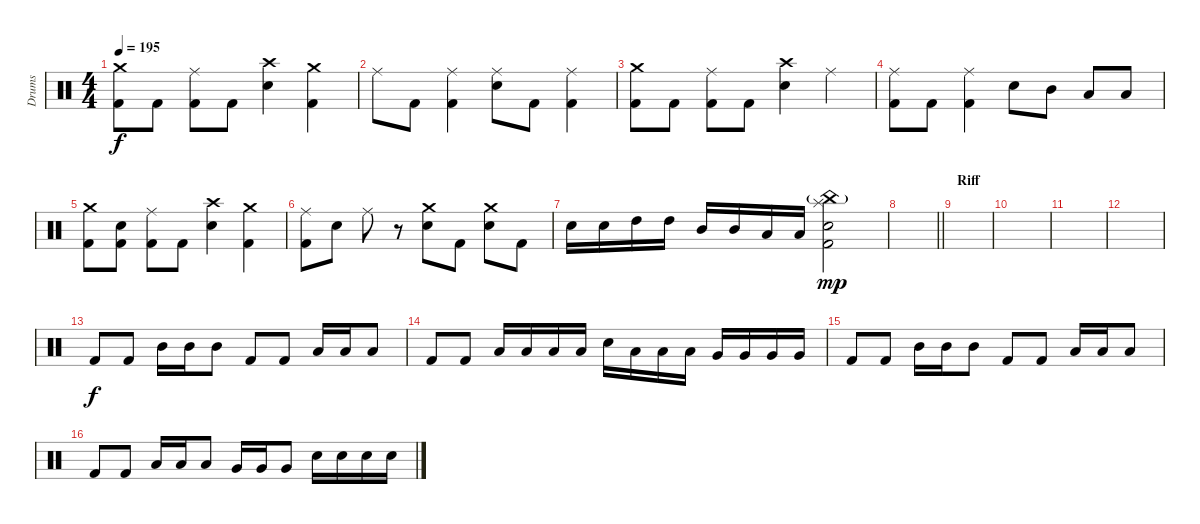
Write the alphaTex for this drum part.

\track ("Drums" "Drums") {instrument percussion}
\staff {score}
\articulation defaults
\ts (4 4)
\tempo 195
\clef neutral
\ks c
("Crash medium (hit)" "Kick (hit) 2").8{dy f} "Kick (hit) 2".8 ("Ride (middle)" "Kick (hit) 2").8 "Kick (hit) 2".8 ("Crash high (hit)" "Electric Snare (hit)").4 ("Crash medium (hit)" "Kick (hit) 2").4 |
"Ride (middle)".8 "Kick (hit) 2".8 ("Ride (middle)" "Kick (hit) 2").4 ("Ride (middle)" "Electric Snare (hit)").8 "Kick (hit) 2".8 ("Ride (middle)" "Kick (hit) 2").4 |
("Crash medium (hit)" "Kick (hit) 2").8 "Kick (hit) 2".8 ("Ride (middle)" "Kick (hit) 2").8 "Kick (hit) 2".8 ("Crash high (hit)" "Electric Snare (hit)").4 "Ride (middle)".4 |
("Ride (middle)" "Kick (hit) 2").8 "Kick (hit) 2".8 ("Ride (middle)" "Kick (hit) 2").4 "Electric Snare (hit)".8 "Mid Tom (hit)".8 "Low Tom (hit)".8 "Low Tom (hit)".8 |
("Crash medium (hit)" "Kick (hit) 2").8 ("Electric Snare (hit)" "Kick (hit) 2").8 ("Ride (middle)" "Kick (hit) 2").8 "Kick (hit) 2".8 ("Crash high (hit)" "Electric Snare (hit)").4 ("Crash medium (hit)" "Kick (hit) 2").4 |
("Ride (middle)" "Kick (hit) 2").8 "Electric Snare (hit)".8 "Ride (middle)".8 r.8 ("Crash medium (hit)" "Electric Snare (hit)").8 "Kick (hit) 2".8 ("Crash medium (hit)" "Electric Snare (hit)").8 "Kick (hit) 2".8 |
"Electric Snare (hit)".16 "Electric Snare (hit)".16 "High Tom (hit)".16 "High Tom (hit)".16 "Mid Tom (hit)".16 "Mid Tom (hit)".16 "Low Tom (hit)".16 "Low Tom (hit)".16 ("Splash (hit)" "China (hit)"{g} "Electric Snare (hit)" "Kick (hit) 2").2{dy mp} |
\barLineRight lightlight
|
\section ("" "Riff")
|
|
|
|
"Kick (hit) 2".8{dy f} "Kick (hit) 2".8 "Mid Tom (hit)".16 "Mid Tom (hit)".16 "Mid Tom (hit)".8 "Kick (hit) 2".8 "Kick (hit) 2".8 "Low Tom (hit)".16 "Low Tom (hit)".16 "Low Tom (hit)".8 |
"Kick (hit) 2".8 "Kick (hit) 2".8 "Low Tom (hit)".16 "Low Tom (hit)".16 "Low Tom (hit)".16 "Low Tom (hit)".16 "Electric Snare (hit)".16 "Low Tom (hit)".16 "Low Tom (hit)".16 "Low Tom (hit)".16 "Very Low Tom (hit)".16 "Very Low Tom (hit)".16 "Very Low Tom (hit)".16 "Very Low Tom (hit)".16 |
"Kick (hit) 2".8 "Kick (hit) 2".8 "Mid Tom (hit)".16 "Mid Tom (hit)".16 "Mid Tom (hit)".8 "Kick (hit) 2".8 "Kick (hit) 2".8 "Low Tom (hit)".16 "Low Tom (hit)".16 "Low Tom (hit)".8 |
"Kick (hit) 2".8 "Kick (hit) 2".8 "Low Tom (hit)".16 "Low Tom (hit)".16 "Low Tom (hit)".8 "Very Low Tom (hit)".16 "Very Low Tom (hit)".16 "Very Low Tom (hit)".8 "Electric Snare (hit)".16 "Electric Snare (hit)".16 "Electric Snare (hit)".16 "Electric Snare (hit)".16
